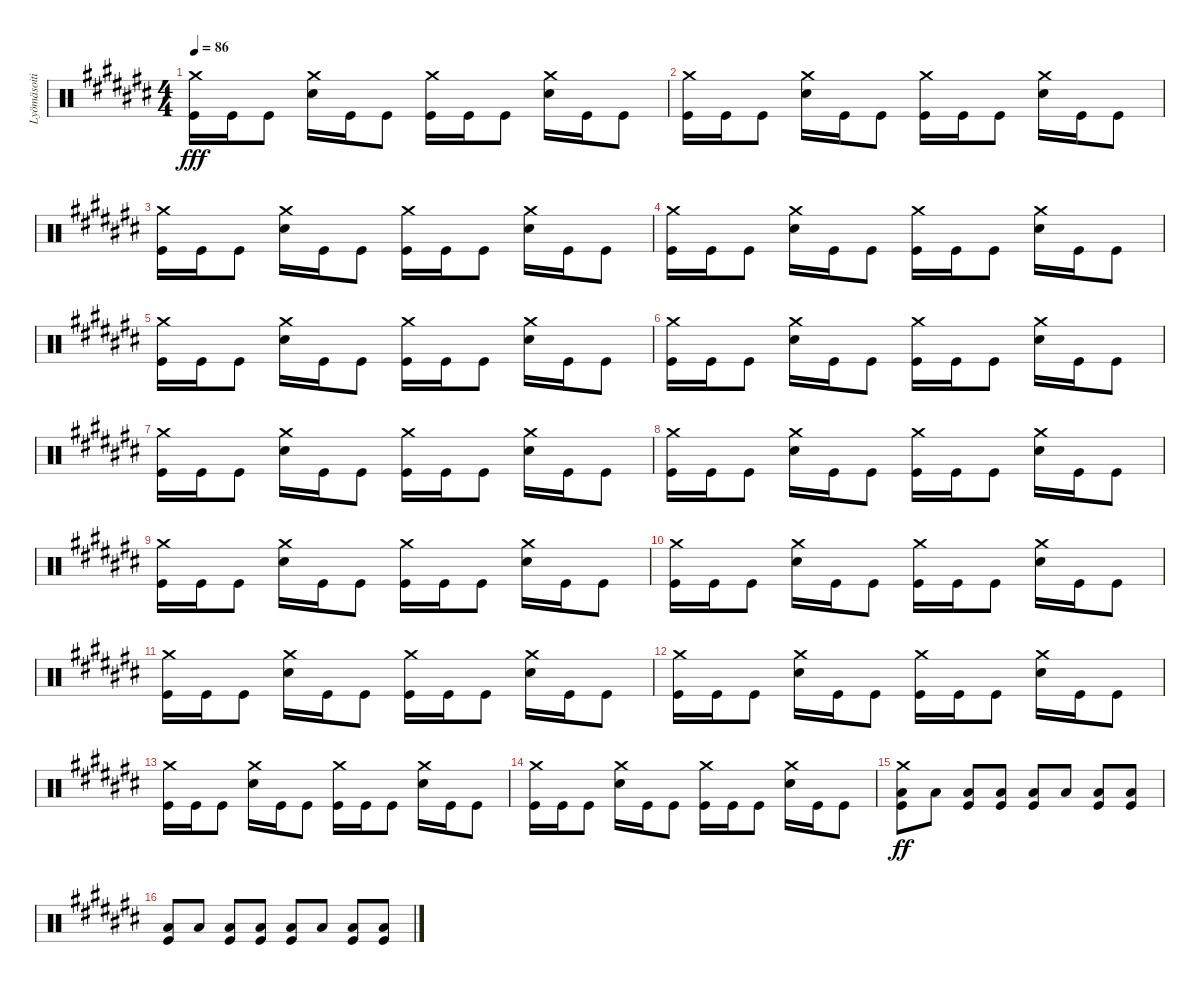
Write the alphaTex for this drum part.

\track ("Lyömäsoitin" "Lyömäsoiti") {instrument percussion}
\staff {score}
\articulation defaults
\ts (4 4)
\tempo 86
\clef neutral
\ks c#
("Crash medium (hit)" "Kick (hit)").16{dy fff} "Kick (hit)".16 "Kick (hit)".8 ("Crash medium (hit)" "Snare (hit) 2").16 "Kick (hit)".16 "Kick (hit)".8 ("Crash medium (hit)" "Kick (hit)").16 "Kick (hit)".16 "Kick (hit)".8 ("Crash medium (hit)" "Snare (hit) 2").16 "Kick (hit)".16 "Kick (hit)".8 |
("Crash medium (hit)" "Kick (hit)").16 "Kick (hit)".16 "Kick (hit)".8 ("Crash medium (hit)" "Snare (hit) 2").16 "Kick (hit)".16 "Kick (hit)".8 ("Crash medium (hit)" "Kick (hit)").16 "Kick (hit)".16 "Kick (hit)".8 ("Crash medium (hit)" "Snare (hit) 2").16 "Kick (hit)".16 "Kick (hit)".8 |
("Crash medium (hit)" "Kick (hit)").16 "Kick (hit)".16 "Kick (hit)".8 ("Crash medium (hit)" "Snare (hit) 2").16 "Kick (hit)".16 "Kick (hit)".8 ("Crash medium (hit)" "Kick (hit)").16 "Kick (hit)".16 "Kick (hit)".8 ("Crash medium (hit)" "Snare (hit) 2").16 "Kick (hit)".16 "Kick (hit)".8 |
("Crash medium (hit)" "Kick (hit)").16 "Kick (hit)".16 "Kick (hit)".8 ("Crash medium (hit)" "Snare (hit) 2").16 "Kick (hit)".16 "Kick (hit)".8 ("Crash medium (hit)" "Kick (hit)").16 "Kick (hit)".16 "Kick (hit)".8 ("Crash medium (hit)" "Snare (hit) 2").16 "Kick (hit)".16 "Kick (hit)".8 |
("Crash medium (hit)" "Kick (hit)").16 "Kick (hit)".16 "Kick (hit)".8 ("Crash medium (hit)" "Snare (hit) 2").16 "Kick (hit)".16 "Kick (hit)".8 ("Crash medium (hit)" "Kick (hit)").16 "Kick (hit)".16 "Kick (hit)".8 ("Crash medium (hit)" "Snare (hit) 2").16 "Kick (hit)".16 "Kick (hit)".8 |
("Crash medium (hit)" "Kick (hit)").16 "Kick (hit)".16 "Kick (hit)".8 ("Crash medium (hit)" "Snare (hit) 2").16 "Kick (hit)".16 "Kick (hit)".8 ("Crash medium (hit)" "Kick (hit)").16 "Kick (hit)".16 "Kick (hit)".8 ("Crash medium (hit)" "Snare (hit) 2").16 "Kick (hit)".16 "Kick (hit)".8 |
("Crash medium (hit)" "Kick (hit)").16 "Kick (hit)".16 "Kick (hit)".8 ("Crash medium (hit)" "Snare (hit) 2").16 "Kick (hit)".16 "Kick (hit)".8 ("Crash medium (hit)" "Kick (hit)").16 "Kick (hit)".16 "Kick (hit)".8 ("Crash medium (hit)" "Snare (hit) 2").16 "Kick (hit)".16 "Kick (hit)".8 |
("Crash medium (hit)" "Kick (hit)").16 "Kick (hit)".16 "Kick (hit)".8 ("Crash medium (hit)" "Snare (hit) 2").16 "Kick (hit)".16 "Kick (hit)".8 ("Crash medium (hit)" "Kick (hit)").16 "Kick (hit)".16 "Kick (hit)".8 ("Crash medium (hit)" "Snare (hit) 2").16 "Kick (hit)".16 "Kick (hit)".8 |
("Crash medium (hit)" "Kick (hit)").16 "Kick (hit)".16 "Kick (hit)".8 ("Crash medium (hit)" "Snare (hit) 2").16 "Kick (hit)".16 "Kick (hit)".8 ("Crash medium (hit)" "Kick (hit)").16 "Kick (hit)".16 "Kick (hit)".8 ("Crash medium (hit)" "Snare (hit) 2").16 "Kick (hit)".16 "Kick (hit)".8 |
("Crash medium (hit)" "Kick (hit)").16 "Kick (hit)".16 "Kick (hit)".8 ("Crash medium (hit)" "Snare (hit) 2").16 "Kick (hit)".16 "Kick (hit)".8 ("Crash medium (hit)" "Kick (hit)").16 "Kick (hit)".16 "Kick (hit)".8 ("Crash medium (hit)" "Snare (hit) 2").16 "Kick (hit)".16 "Kick (hit)".8 |
("Crash medium (hit)" "Kick (hit)").16 "Kick (hit)".16 "Kick (hit)".8 ("Crash medium (hit)" "Snare (hit) 2").16 "Kick (hit)".16 "Kick (hit)".8 ("Crash medium (hit)" "Kick (hit)").16 "Kick (hit)".16 "Kick (hit)".8 ("Crash medium (hit)" "Snare (hit) 2").16 "Kick (hit)".16 "Kick (hit)".8 |
("Crash medium (hit)" "Kick (hit)").16 "Kick (hit)".16 "Kick (hit)".8 ("Crash medium (hit)" "Snare (hit) 2").16 "Kick (hit)".16 "Kick (hit)".8 ("Crash medium (hit)" "Kick (hit)").16 "Kick (hit)".16 "Kick (hit)".8 ("Crash medium (hit)" "Snare (hit) 2").16 "Kick (hit)".16 "Kick (hit)".8 |
("Crash medium (hit)" "Kick (hit)").16 "Kick (hit)".16 "Kick (hit)".8 ("Crash medium (hit)" "Snare (hit) 2").16 "Kick (hit)".16 "Kick (hit)".8 ("Crash medium (hit)" "Kick (hit)").16 "Kick (hit)".16 "Kick (hit)".8 ("Crash medium (hit)" "Snare (hit) 2").16 "Kick (hit)".16 "Kick (hit)".8 |
("Crash medium (hit)" "Kick (hit)").16 "Kick (hit)".16 "Kick (hit)".8 ("Crash medium (hit)" "Snare (hit) 2").16 "Kick (hit)".16 "Kick (hit)".8 ("Crash medium (hit)" "Kick (hit)").16 "Kick (hit)".16 "Kick (hit)".8 ("Crash medium (hit)" "Snare (hit) 2").16 "Kick (hit)".16 "Kick (hit)".8 |
("Crash medium (hit)" "Low Floor Tom (hit)" "Kick (hit)").8{dy ff} "Low Floor Tom (hit)".8 ("Low Floor Tom (hit)" "Kick (hit)").8 ("Low Floor Tom (hit)" "Kick (hit)").8 ("Low Floor Tom (hit)" "Kick (hit)").8 "Low Floor Tom (hit)".8 ("Low Floor Tom (hit)" "Kick (hit)").8 ("Low Floor Tom (hit)" "Kick (hit)").8 |
("Low Floor Tom (hit)" "Kick (hit)").8 "Low Floor Tom (hit)".8 ("Low Floor Tom (hit)" "Kick (hit)").8 ("Low Floor Tom (hit)" "Kick (hit)").8 ("Low Floor Tom (hit)" "Kick (hit)").8 "Low Floor Tom (hit)".8 ("Low Floor Tom (hit)" "Kick (hit)").8 ("Low Floor Tom (hit)" "Kick (hit)").8
